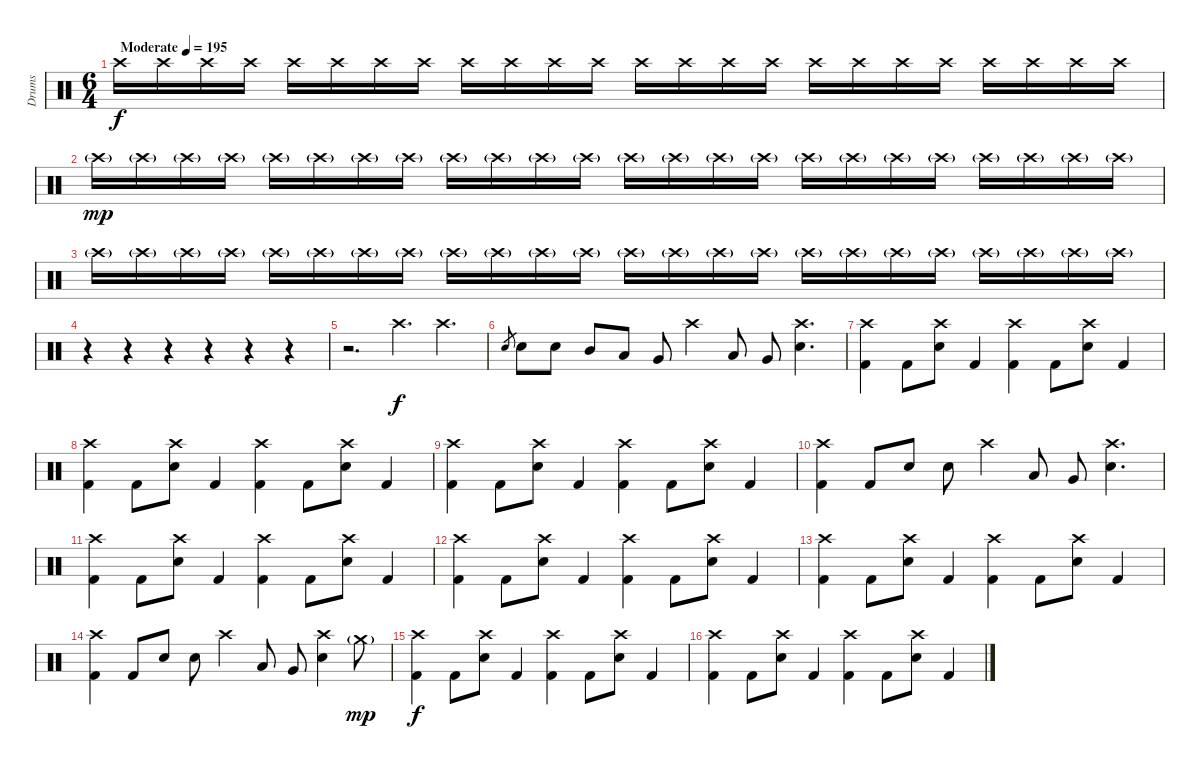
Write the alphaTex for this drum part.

\track ("Drums" "Drums") {instrument percussion}
\staff {score}
\articulation defaults
\ts (6 4)
\tempo (195 "Moderate")
\clef neutral
\ks c "Crash high (hit)".16{dy f volume 9} "Crash high (hit)".16 "Crash high (hit)".16 "Crash high (hit)".16 "Crash high (hit)".16 "Crash high (hit)".16 "Crash high (hit)".16 "Crash high (hit)".16 "Crash high (hit)".16{volume 12} "Crash high (hit)".16 "Crash high (hit)".16 "Crash high (hit)".16 "Crash high (hit)".16 "Crash high (hit)".16 "Crash high (hit)".16 "Crash high (hit)".16 "Crash high (hit)".16{volume 9} "Crash high (hit)".16 "Crash high (hit)".16 "Crash high (hit)".16 "Crash high (hit)".16 "Crash high (hit)".16 "Crash high (hit)".16 "Crash high (hit)".16
|
"Crash high (hit)"{g}.16{dy mp volume 13} "Crash high (hit)"{g}.16 "Crash high (hit)"{g}.16 "Crash high (hit)"{g}.16 "Crash high (hit)"{g}.16 "Crash high (hit)"{g}.16 "Crash high (hit)"{g}.16 "Crash high (hit)"{g}.16 "Crash high (hit)"{g}.16{volume 9} "Crash high (hit)"{g}.16 "Crash high (hit)"{g}.16 "Crash high (hit)"{g}.16 "Crash high (hit)"{g}.16 "Crash high (hit)"{g}.16 "Crash high (hit)"{g}.16 "Crash high (hit)"{g}.16 "Crash high (hit)"{g}.16{volume 13} "Crash high (hit)"{g}.16 "Crash high (hit)"{g}.16 "Crash high (hit)"{g}.16 "Crash high (hit)"{g}.16 "Crash high (hit)"{g}.16 "Crash high (hit)"{g}.16 "Crash high (hit)"{g}.16 |
"Crash high (hit)"{g}.16{volume 4} "Crash high (hit)"{g}.16 "Crash high (hit)"{g}.16 "Crash high (hit)"{g}.16 "Crash high (hit)"{g}.16 "Crash high (hit)"{g}.16 "Crash high (hit)"{g}.16 "Crash high (hit)"{g}.16 "Crash high (hit)"{g}.16 "Crash high (hit)"{g}.16 "Crash high (hit)"{g}.16 "Crash high (hit)"{g}.16 "Crash high (hit)"{g}.16 "Crash high (hit)"{g}.16 "Crash high (hit)"{g}.16 "Crash high (hit)"{g}.16 "Crash high (hit)"{g}.16 "Crash high (hit)"{g}.16 "Crash high (hit)"{g}.16 "Crash high (hit)"{g}.16 "Crash high (hit)"{g}.16 "Crash high (hit)"{g}.16 "Crash high (hit)"{g}.16 "Crash high (hit)"{g}.16 |
r.4 r.4 r.4 r.4 r.4{volume 12} r.4 |
r.2{d} "Crash high (hit)".4{d dy f} "Crash high (hit)".4{d} |
"Electric Snare (hit)".8{gr} "Electric Snare (hit)".8 "Electric Snare (hit)".8 "Mid Tom (hit)".8 "Low Tom (hit)".8 "Very Low Tom (hit)".8 "Crash high (hit)".4 "Low Tom (hit)".8 "Very Low Tom (hit)".8 ("Crash high (hit)" "Electric Snare (hit)").4{d} |
("Crash high (hit)" "Kick (hit) 2").4 "Kick (hit) 2".8 ("Crash high (hit)" "Electric Snare (hit)").8 "Kick (hit) 2".4 ("Crash high (hit)" "Kick (hit) 2").4 "Kick (hit) 2".8 ("Crash high (hit)" "Electric Snare (hit)").8 "Kick (hit) 2".4 |
("Crash high (hit)" "Kick (hit) 2").4 "Kick (hit) 2".8 ("Crash high (hit)" "Electric Snare (hit)").8 "Kick (hit) 2".4 ("Crash high (hit)" "Kick (hit) 2").4 "Kick (hit) 2".8 ("Crash high (hit)" "Electric Snare (hit)").8 "Kick (hit) 2".4 |
("Crash high (hit)" "Kick (hit) 2").4 "Kick (hit) 2".8 ("Crash high (hit)" "Electric Snare (hit)").8 "Kick (hit) 2".4 ("Crash high (hit)" "Kick (hit) 2").4 "Kick (hit) 2".8 ("Crash high (hit)" "Electric Snare (hit)").8 "Kick (hit) 2".4 |
("Crash high (hit)" "Kick (hit) 2").4 "Kick (hit) 2".8 "Electric Snare (hit)".8 "Electric Snare (hit)".8 "Crash high (hit)".4 "Low Tom (hit)".8 "Very Low Tom (hit)".8 ("Crash high (hit)" "Electric Snare (hit)").4{d} |
("Crash high (hit)" "Kick (hit) 2").4 "Kick (hit) 2".8 ("Crash high (hit)" "Electric Snare (hit)").8 "Kick (hit) 2".4 ("Crash high (hit)" "Kick (hit) 2").4 "Kick (hit) 2".8 ("Crash high (hit)" "Electric Snare (hit)").8 "Kick (hit) 2".4 |
("Crash high (hit)" "Kick (hit) 2").4 "Kick (hit) 2".8 ("Crash high (hit)" "Electric Snare (hit)").8 "Kick (hit) 2".4 ("Crash high (hit)" "Kick (hit) 2").4 "Kick (hit) 2".8 ("Crash high (hit)" "Electric Snare (hit)").8 "Kick (hit) 2".4 |
("Crash high (hit)" "Kick (hit) 2").4 "Kick (hit) 2".8 ("Crash high (hit)" "Electric Snare (hit)").8 "Kick (hit) 2".4 ("Crash high (hit)" "Kick (hit) 2").4 "Kick (hit) 2".8 ("Crash high (hit)" "Electric Snare (hit)").8 "Kick (hit) 2".4 |
("Crash high (hit)" "Kick (hit) 2").4 "Kick (hit) 2".8 "Electric Snare (hit)".8 "Electric Snare (hit)".8 "Crash high (hit)".4 "Low Tom (hit)".8 "Very Low Tom (hit)".8 ("Crash high (hit)" "Electric Snare (hit)").4 "Crash medium (hit)"{g}.8{dy mp} |
("Crash high (hit)" "Kick (hit) 2").4{dy f} "Kick (hit) 2".8 ("Crash high (hit)" "Electric Snare (hit)").8 "Kick (hit) 2".4 ("Crash high (hit)" "Kick (hit) 2").4 "Kick (hit) 2".8 ("Crash high (hit)" "Electric Snare (hit)").8 "Kick (hit) 2".4 |
("Crash high (hit)" "Kick (hit) 2").4 "Kick (hit) 2".8 ("Crash high (hit)" "Electric Snare (hit)").8 "Kick (hit) 2".4 ("Crash high (hit)" "Kick (hit) 2").4 "Kick (hit) 2".8 ("Crash high (hit)" "Electric Snare (hit)").8 "Kick (hit) 2".4
